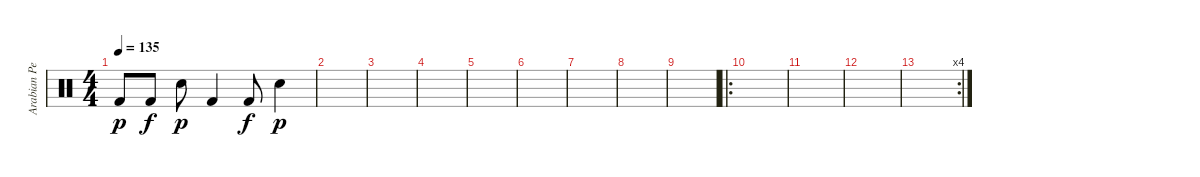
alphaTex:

\track ("Arabian Perc" "Arabian Pe") {instrument percussion}
\staff {score}
\articulation defaults
\ts (4 4)
\tempo 135
\clef neutral
\ks c "Kick (hit) 2".8{dy p} "Kick (hit) 2".8{dy f} "Electric Snare (hit)".8{dy p} "Kick (hit) 2".4 "Kick (hit) 2".8{dy f} "Electric Snare (hit)".4{dy p}
|
|
|
|
|
|
|
|
|
\ro
|
|
|
\rc 4
